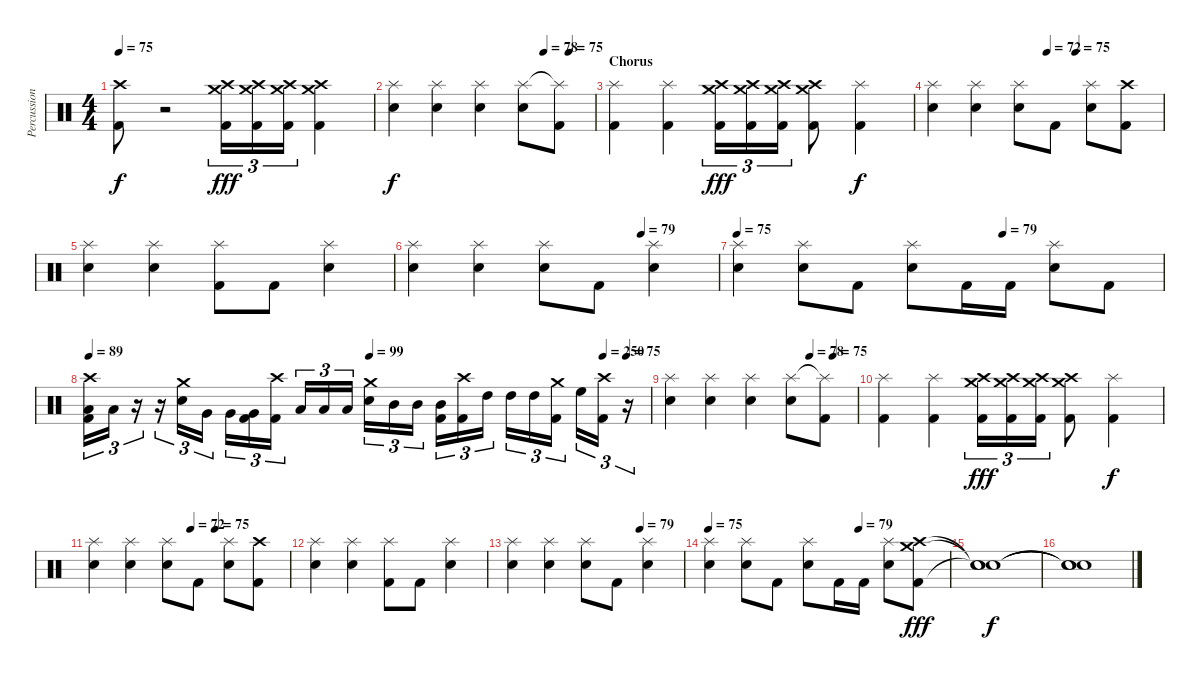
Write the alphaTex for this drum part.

\track ("Percussion" "Percussion") {instrument percussion}
\staff {score}
\articulation defaults
\ts (4 4)
\tempo 75
\clef neutral
\ks c
("Crash high (hit)" "Kick (hit) 2").8{dy f} r.2 ("Crash high (hit)" "Crash medium (hit)" "Kick (hit) 2").16{tu (3 2) dy fff} ("Crash high (hit)" "Crash medium (hit)" "Kick (hit) 2").16{tu (3 2)} ("Crash high (hit)" "Crash medium (hit)" "Kick (hit) 2").16{tu (3 2)} ("Crash high (hit)" "Crash medium (hit)" "Kick (hit) 2").4 |
\tempo (78 0.75)
\tempo (75 0.875)
("Splash (hit)" "Snare (hit) 2").4{dy f} ("Splash (hit)" "Snare (hit) 2").4 ("Splash (hit)" "Snare (hit) 2").4 ("Splash (hit)" "Snare (hit) 2").8 ("Splash (hit)"{t} "Kick (hit) 2").8 |
\section ("" "Chorus")
("Splash (hit)" "Kick (hit) 2").4 ("Splash (hit)" "Kick (hit) 2").4 ("Crash high (hit)" "Crash medium (hit)" "Kick (hit) 2").16{tu (3 2) dy fff} ("Crash high (hit)" "Crash medium (hit)" "Kick (hit) 2").16{tu (3 2)} ("Crash high (hit)" "Crash medium (hit)" "Kick (hit) 2").16{tu (3 2)} ("Crash high (hit)" "Crash medium (hit)" "Kick (hit) 2").8 ("Splash (hit)" "Kick (hit) 2").4{dy f} |
\tempo (72 0.5)
\tempo (75 0.625)
("Splash (hit)" "Snare (hit) 2").4 ("Splash (hit)" "Snare (hit) 2").4 ("Splash (hit)" "Snare (hit) 2").8 "Kick (hit) 2".8 ("Splash (hit)" "Snare (hit) 2").8 ("Crash high (hit)" "Kick (hit) 2").8 |
("Splash (hit)" "Snare (hit) 2").4 ("Splash (hit)" "Snare (hit) 2").4 ("Splash (hit)" "Kick (hit) 2").8 "Kick (hit) 2".8 ("Splash (hit)" "Snare (hit) 2").4 |
\tempo (79 0.75)
("Splash (hit)" "Snare (hit) 2").4 ("Splash (hit)" "Snare (hit) 2").4 ("Splash (hit)" "Snare (hit) 2").8 "Kick (hit) 2".8 ("Splash (hit)" "Snare (hit) 2").4 |
\tempo 75
\tempo (79 0.625)
("Splash (hit)" "Snare (hit) 2").4 ("Splash (hit)" "Snare (hit) 2").8 "Kick (hit) 2".8 ("Splash (hit)" "Snare (hit) 2").8 "Kick (hit) 2".16 "Kick (hit) 2".16 ("Splash (hit)" "Snare (hit) 2").8 "Kick (hit) 2".8 |
\tempo 79
\tempo (99 0.5)
\tempo (250 0.9166666666666666)
\tempo (75 0.9583333333333334)
\tempo 89
("Crash high (hit)" "Low Floor Tom (hit)" "Kick (hit) 2").16{tu (3 2)} "Low Floor Tom (hit)".16{tu (3 2)} r.16{tu (3 2)} r.16{tu (3 2)} ("Crash medium (hit)" "Snare (hit) 2").16{tu (3 2)} "Very Low Tom (hit)".16{tu (3 2)} "Very Low Tom (hit)".16{tu (3 2)} ("Very Low Tom (hit)" "Kick (hit) 2").16{tu (3 2)} ("Crash high (hit)" "Kick (hit) 2").16{tu (3 2)} "Low Tom (hit)".16{tu (3 2)} "Low Tom (hit)".16{tu (3 2)} "Low Tom (hit)".16{tu (3 2)} ("Crash medium (hit)" "Snare (hit) 2").16{tu (3 2)} "Mid Tom (hit)".16{tu (3 2)} "Mid Tom (hit)".16{tu (3 2)} ("Mid Tom (hit)" "Kick (hit) 2").16{tu (3 2)} ("Crash high (hit)" "Kick (hit) 2").16{tu (3 2)} "High Tom (hit)".16{tu (3 2)} "High Tom (hit)".16{tu (3 2)} "High Tom (hit)".16{tu (3 2)} ("Crash medium (hit)" "Kick (hit) 2").16{tu (3 2)} "High Floor Tom (hit)".16{tu (3 2)} ("Crash high (hit)" "Kick (hit) 2").16{tu (3 2)} r.16{tu (3 2)} |
\tempo (78 0.75)
\tempo (75 0.875)
("Splash (hit)" "Snare (hit) 2").4 ("Splash (hit)" "Snare (hit) 2").4 ("Splash (hit)" "Snare (hit) 2").4 ("Splash (hit)" "Snare (hit) 2").8 ("Splash (hit)"{t} "Kick (hit) 2").8 |
("Splash (hit)" "Kick (hit) 2").4 ("Splash (hit)" "Kick (hit) 2").4 ("Crash high (hit)" "Crash medium (hit)" "Kick (hit) 2").16{tu (3 2) dy fff} ("Crash high (hit)" "Crash medium (hit)" "Kick (hit) 2").16{tu (3 2)} ("Crash high (hit)" "Crash medium (hit)" "Kick (hit) 2").16{tu (3 2)} ("Crash high (hit)" "Crash medium (hit)" "Kick (hit) 2").8 ("Splash (hit)" "Kick (hit) 2").4{dy f} |
\tempo (72 0.5)
\tempo (75 0.625)
("Splash (hit)" "Snare (hit) 2").4 ("Splash (hit)" "Snare (hit) 2").4 ("Splash (hit)" "Snare (hit) 2").8 "Kick (hit) 2".8 ("Splash (hit)" "Snare (hit) 2").8 ("Crash high (hit)" "Kick (hit) 2").8 |
("Splash (hit)" "Snare (hit) 2").4 ("Splash (hit)" "Snare (hit) 2").4 ("Splash (hit)" "Kick (hit) 2").8 "Kick (hit) 2".8 ("Splash (hit)" "Snare (hit) 2").4 |
\tempo (79 0.75)
("Splash (hit)" "Snare (hit) 2").4 ("Splash (hit)" "Snare (hit) 2").4 ("Splash (hit)" "Snare (hit) 2").8 "Kick (hit) 2".8 ("Splash (hit)" "Snare (hit) 2").4 |
\tempo 75
\tempo (79 0.625)
("Splash (hit)" "Snare (hit) 2").4 ("Splash (hit)" "Snare (hit) 2").8 "Kick (hit) 2".8 ("Splash (hit)" "Snare (hit) 2").8 "Kick (hit) 2".16 "Kick (hit) 2".16 ("Splash (hit)" "Snare (hit) 2").8 ("Crash medium (hit)" "Crash high (hit)" "Kick (hit) 2").8{dy fff volume 0} |
("Snare (hit)"{t} "Snare (hit)"{t} "Snare (hit)"{t}).1{dy f} |
("Snare (hit)"{t} "Snare (hit)"{t} "Snare (hit)"{t}).1
